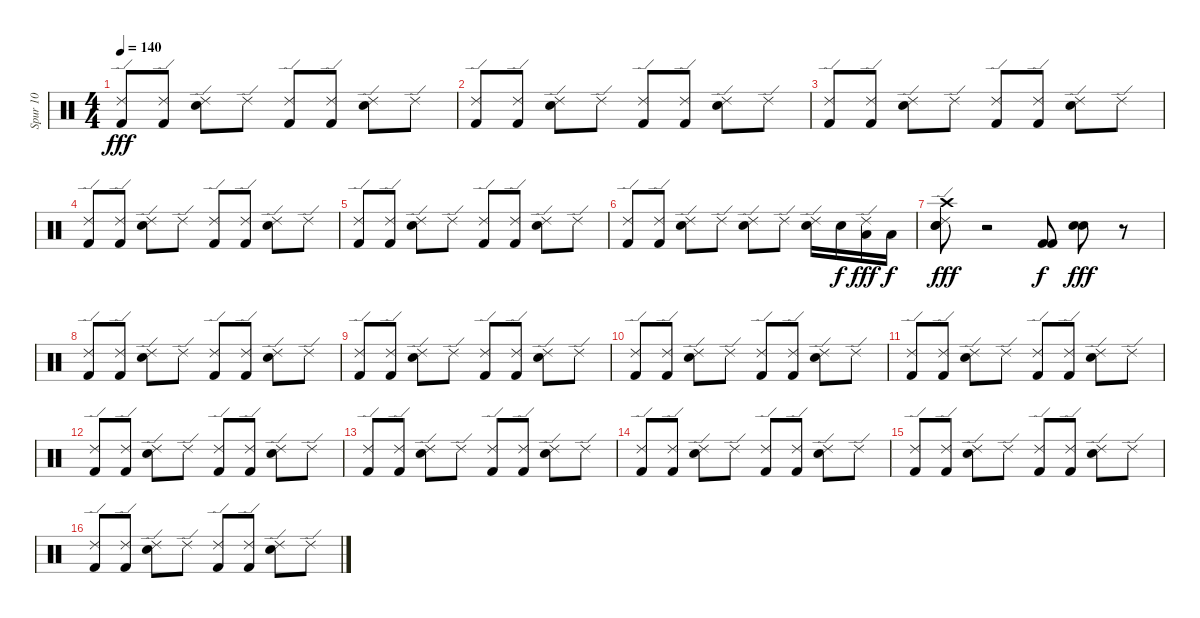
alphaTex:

\track ("Spur 10" "Spur 10") {instrument percussion}
\staff {score}
\articulation defaults
\ts (4 4)
\tempo 140
\clef neutral
\ks c
("Ride (edge) 2" "Kick (hit) 2").8{dy fff} ("Ride (edge) 2" "Kick (hit) 2").8 ("Ride (edge) 2" "Electric Snare (hit)").8 "Ride (edge) 2".8 ("Ride (edge) 2" "Kick (hit) 2").8 ("Ride (edge) 2" "Kick (hit) 2").8 ("Ride (edge) 2" "Electric Snare (hit)").8 "Ride (edge) 2".8 |
("Ride (edge) 2" "Kick (hit) 2").8 ("Ride (edge) 2" "Kick (hit) 2").8 ("Ride (edge) 2" "Electric Snare (hit)").8 "Ride (edge) 2".8 ("Ride (edge) 2" "Kick (hit) 2").8 ("Ride (edge) 2" "Kick (hit) 2").8 ("Ride (edge) 2" "Electric Snare (hit)").8 "Ride (edge) 2".8 |
("Ride (edge) 2" "Kick (hit) 2").8 ("Ride (edge) 2" "Kick (hit) 2").8 ("Ride (edge) 2" "Electric Snare (hit)").8 "Ride (edge) 2".8 ("Ride (edge) 2" "Kick (hit) 2").8 ("Ride (edge) 2" "Kick (hit) 2").8 ("Ride (edge) 2" "Electric Snare (hit)").8 "Ride (edge) 2".8 |
("Ride (edge) 2" "Kick (hit) 2").8 ("Ride (edge) 2" "Kick (hit) 2").8 ("Ride (edge) 2" "Electric Snare (hit)").8 "Ride (edge) 2".8 ("Ride (edge) 2" "Kick (hit) 2").8 ("Ride (edge) 2" "Kick (hit) 2").8 ("Ride (edge) 2" "Electric Snare (hit)").8 "Ride (edge) 2".8 |
("Ride (edge) 2" "Kick (hit) 2").8 ("Ride (edge) 2" "Kick (hit) 2").8 ("Ride (edge) 2" "Electric Snare (hit)").8 "Ride (edge) 2".8 ("Ride (edge) 2" "Kick (hit) 2").8 ("Ride (edge) 2" "Kick (hit) 2").8 ("Ride (edge) 2" "Electric Snare (hit)").8 "Ride (edge) 2".8 |
("Ride (edge) 2" "Kick (hit) 2").8 ("Ride (edge) 2" "Kick (hit) 2").8 ("Ride (edge) 2" "Electric Snare (hit)").8 "Ride (edge) 2".8 ("Ride (edge) 2" "Electric Snare (hit)").8 "Ride (edge) 2".8 ("Ride (edge) 2" "Snare (hit) 2").16 "Snare (hit) 2".16{dy f} ("Ride (edge) 2" "Low Tom (hit)").16{dy fff} "Low Tom (hit)".16{dy f} |
("Snare (hit) 2" "Ride (edge) 2" "Crash high (hit)" "Electric Snare (hit)").8{dy fff} r.2 ("Kick (hit) 2" "Kick (hit) 2").8{dy f} ("Snare (hit) 2" "Electric Snare (hit)").8{dy fff} r.8 |
("Ride (edge) 2" "Kick (hit) 2").8 ("Ride (edge) 2" "Kick (hit) 2").8 ("Ride (edge) 2" "Electric Snare (hit)").8 "Ride (edge) 2".8 ("Ride (edge) 2" "Kick (hit) 2").8 ("Ride (edge) 2" "Kick (hit) 2").8 ("Ride (edge) 2" "Electric Snare (hit)").8 "Ride (edge) 2".8 |
("Ride (edge) 2" "Kick (hit) 2").8 ("Ride (edge) 2" "Kick (hit) 2").8 ("Ride (edge) 2" "Electric Snare (hit)").8 "Ride (edge) 2".8 ("Ride (edge) 2" "Kick (hit) 2").8 ("Ride (edge) 2" "Kick (hit) 2").8 ("Ride (edge) 2" "Electric Snare (hit)").8 "Ride (edge) 2".8 |
("Ride (edge) 2" "Kick (hit) 2").8 ("Ride (edge) 2" "Kick (hit) 2").8 ("Ride (edge) 2" "Electric Snare (hit)").8 "Ride (edge) 2".8 ("Ride (edge) 2" "Kick (hit) 2").8 ("Ride (edge) 2" "Kick (hit) 2").8 ("Ride (edge) 2" "Electric Snare (hit)").8 "Ride (edge) 2".8 |
("Ride (edge) 2" "Kick (hit) 2").8 ("Ride (edge) 2" "Kick (hit) 2").8 ("Ride (edge) 2" "Electric Snare (hit)").8 "Ride (edge) 2".8 ("Ride (edge) 2" "Kick (hit) 2").8 ("Ride (edge) 2" "Kick (hit) 2").8 ("Ride (edge) 2" "Electric Snare (hit)").8 "Ride (edge) 2".8 |
("Ride (edge) 2" "Kick (hit) 2").8 ("Ride (edge) 2" "Kick (hit) 2").8 ("Ride (edge) 2" "Electric Snare (hit)").8 "Ride (edge) 2".8 ("Ride (edge) 2" "Kick (hit) 2").8 ("Ride (edge) 2" "Kick (hit) 2").8 ("Ride (edge) 2" "Electric Snare (hit)").8 "Ride (edge) 2".8 |
("Ride (edge) 2" "Kick (hit) 2").8 ("Ride (edge) 2" "Kick (hit) 2").8 ("Ride (edge) 2" "Electric Snare (hit)").8 "Ride (edge) 2".8 ("Ride (edge) 2" "Kick (hit) 2").8 ("Ride (edge) 2" "Kick (hit) 2").8 ("Ride (edge) 2" "Electric Snare (hit)").8 "Ride (edge) 2".8 |
("Ride (edge) 2" "Kick (hit) 2").8 ("Ride (edge) 2" "Kick (hit) 2").8 ("Ride (edge) 2" "Electric Snare (hit)").8 "Ride (edge) 2".8 ("Ride (edge) 2" "Kick (hit) 2").8 ("Ride (edge) 2" "Kick (hit) 2").8 ("Ride (edge) 2" "Electric Snare (hit)").8 "Ride (edge) 2".8 |
("Ride (edge) 2" "Kick (hit) 2").8 ("Ride (edge) 2" "Kick (hit) 2").8 ("Ride (edge) 2" "Electric Snare (hit)").8 "Ride (edge) 2".8 ("Ride (edge) 2" "Kick (hit) 2").8 ("Ride (edge) 2" "Kick (hit) 2").8 ("Ride (edge) 2" "Electric Snare (hit)").8 "Ride (edge) 2".8 |
("Ride (edge) 2" "Kick (hit) 2").8 ("Ride (edge) 2" "Kick (hit) 2").8 ("Ride (edge) 2" "Electric Snare (hit)").8 "Ride (edge) 2".8 ("Ride (edge) 2" "Kick (hit) 2").8 ("Ride (edge) 2" "Kick (hit) 2").8 ("Ride (edge) 2" "Electric Snare (hit)").8 "Ride (edge) 2".8
